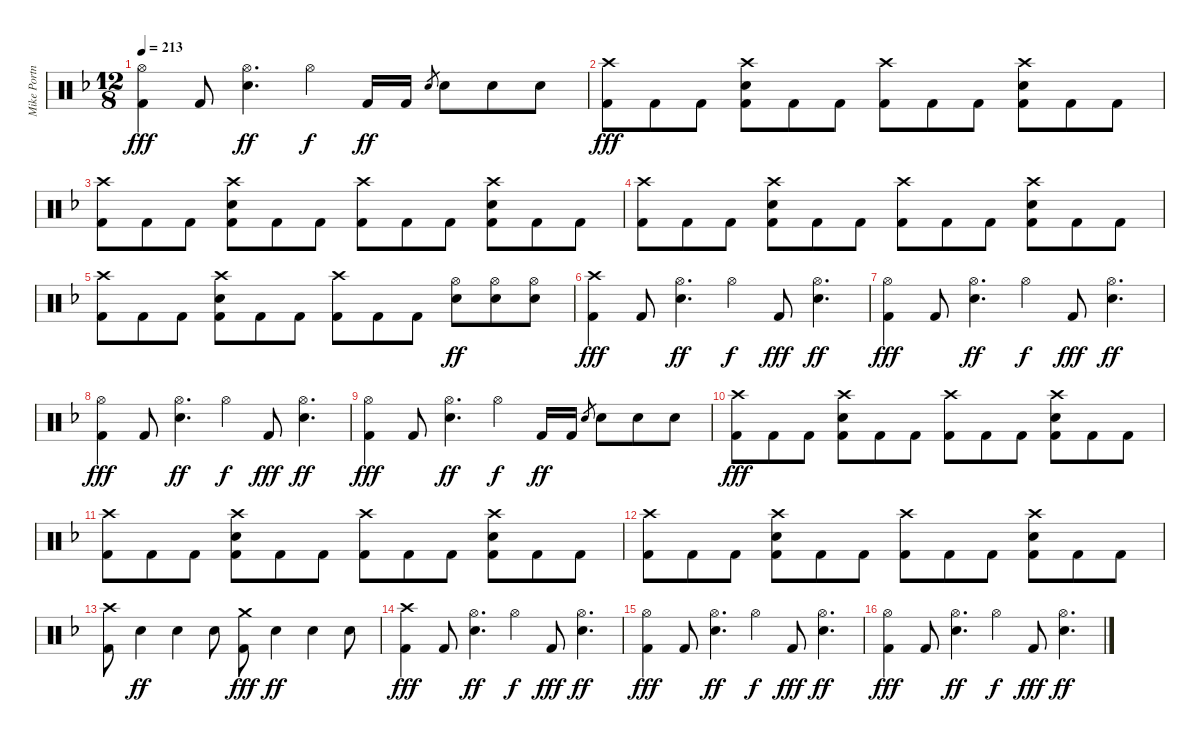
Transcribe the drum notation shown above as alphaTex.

\track ("Mike Portnoy Drums" "Mike Portn") {instrument percussion}
\staff {score}
\articulation defaults
\ts (12 8)
\tempo 213
\clef neutral
\ks dminor
("Hi-Hat (open)" "Kick (hit) 2").4{dy fff} "Kick (hit) 2".8 ("Hi-Hat (open)" "Electric Snare (hit)").4{d dy ff} "Hi-Hat (open)".4{dy f} "Kick (hit) 2".16{dy ff} "Kick (hit) 2".16 "Electric Snare (hit)".8{gr} "Electric Snare (hit)".8 "Electric Snare (hit)".8 "Electric Snare (hit)".8 |
("Crash high (hit)" "Kick (hit) 2").8{dy fff} "Kick (hit) 2".8 "Kick (hit) 2".8 ("Crash high (hit)" "Electric Snare (hit)" "Kick (hit) 2").8 "Kick (hit) 2".8 "Kick (hit) 2".8 ("Crash high (hit)" "Kick (hit) 2").8 "Kick (hit) 2".8 "Kick (hit) 2".8 ("Crash high (hit)" "Electric Snare (hit)" "Kick (hit) 2").8 "Kick (hit) 2".8 "Kick (hit) 2".8 |
("Crash high (hit)" "Kick (hit) 2").8 "Kick (hit) 2".8 "Kick (hit) 2".8 ("Crash high (hit)" "Electric Snare (hit)" "Kick (hit) 2").8 "Kick (hit) 2".8 "Kick (hit) 2".8 ("Crash high (hit)" "Kick (hit) 2").8 "Kick (hit) 2".8 "Kick (hit) 2".8 ("Crash high (hit)" "Electric Snare (hit)" "Kick (hit) 2").8 "Kick (hit) 2".8 "Kick (hit) 2".8 |
("Crash high (hit)" "Kick (hit) 2").8 "Kick (hit) 2".8 "Kick (hit) 2".8 ("Crash high (hit)" "Electric Snare (hit)" "Kick (hit) 2").8 "Kick (hit) 2".8 "Kick (hit) 2".8 ("Crash high (hit)" "Kick (hit) 2").8 "Kick (hit) 2".8 "Kick (hit) 2".8 ("Crash high (hit)" "Electric Snare (hit)" "Kick (hit) 2").8 "Kick (hit) 2".8 "Kick (hit) 2".8 |
("Crash high (hit)" "Kick (hit) 2").8 "Kick (hit) 2".8 "Kick (hit) 2".8 ("Crash high (hit)" "Electric Snare (hit)" "Kick (hit) 2").8 "Kick (hit) 2".8 "Kick (hit) 2".8 ("Crash high (hit)" "Kick (hit) 2").8 "Kick (hit) 2".8 "Kick (hit) 2".8 ("Hi-Hat (open)" "Electric Snare (hit)").8{dy ff} ("Hi-Hat (open)" "Electric Snare (hit)").8 ("Hi-Hat (open)" "Electric Snare (hit)").8 |
("Crash high (hit)" "Kick (hit) 2").4{dy fff} "Kick (hit) 2".8 ("Hi-Hat (open)" "Electric Snare (hit)").4{d dy ff} "Hi-Hat (open)".4{dy f} "Kick (hit) 2".8{dy fff} ("Hi-Hat (open)" "Electric Snare (hit)").4{d dy ff} |
("Hi-Hat (open)" "Kick (hit) 2").4{dy fff} "Kick (hit) 2".8 ("Hi-Hat (open)" "Electric Snare (hit)").4{d dy ff} "Hi-Hat (open)".4{dy f} "Kick (hit) 2".8{dy fff} ("Hi-Hat (open)" "Electric Snare (hit)").4{d dy ff} |
("Hi-Hat (open)" "Kick (hit) 2").4{dy fff} "Kick (hit) 2".8 ("Hi-Hat (open)" "Electric Snare (hit)").4{d dy ff} "Hi-Hat (open)".4{dy f} "Kick (hit) 2".8{dy fff} ("Hi-Hat (open)" "Electric Snare (hit)").4{d dy ff} |
("Hi-Hat (open)" "Kick (hit) 2").4{dy fff} "Kick (hit) 2".8 ("Hi-Hat (open)" "Electric Snare (hit)").4{d dy ff} "Hi-Hat (open)".4{dy f} "Kick (hit) 2".16{dy ff} "Kick (hit) 2".16 "Electric Snare (hit)".8{gr} "Electric Snare (hit)".8 "Electric Snare (hit)".8 "Electric Snare (hit)".8 |
("Crash high (hit)" "Kick (hit) 2").8{dy fff} "Kick (hit) 2".8 "Kick (hit) 2".8 ("Crash high (hit)" "Electric Snare (hit)" "Kick (hit) 2").8 "Kick (hit) 2".8 "Kick (hit) 2".8 ("Crash high (hit)" "Kick (hit) 2").8 "Kick (hit) 2".8 "Kick (hit) 2".8 ("Crash high (hit)" "Electric Snare (hit)" "Kick (hit) 2").8 "Kick (hit) 2".8 "Kick (hit) 2".8 |
("Crash high (hit)" "Kick (hit) 2").8 "Kick (hit) 2".8 "Kick (hit) 2".8 ("Crash high (hit)" "Electric Snare (hit)" "Kick (hit) 2").8 "Kick (hit) 2".8 "Kick (hit) 2".8 ("Crash high (hit)" "Kick (hit) 2").8 "Kick (hit) 2".8 "Kick (hit) 2".8 ("Crash high (hit)" "Electric Snare (hit)" "Kick (hit) 2").8 "Kick (hit) 2".8 "Kick (hit) 2".8 |
("Crash high (hit)" "Kick (hit) 2").8 "Kick (hit) 2".8 "Kick (hit) 2".8 ("Crash high (hit)" "Electric Snare (hit)" "Kick (hit) 2").8 "Kick (hit) 2".8 "Kick (hit) 2".8 ("Crash high (hit)" "Kick (hit) 2").8 "Kick (hit) 2".8 "Kick (hit) 2".8 ("Crash high (hit)" "Electric Snare (hit)" "Kick (hit) 2").8 "Kick (hit) 2".8 "Kick (hit) 2".8 |
("Crash high (hit)" "Kick (hit) 2").8 "Electric Snare (hit)".4{dy ff} "Electric Snare (hit)".4 "Electric Snare (hit)".8 ("Crash medium (hit)" "Kick (hit) 2").8{dy fff} "Electric Snare (hit)".4{dy ff} "Electric Snare (hit)".4 "Electric Snare (hit)".8 |
("Crash high (hit)" "Kick (hit) 2").4{dy fff} "Kick (hit) 2".8 ("Hi-Hat (open)" "Electric Snare (hit)").4{d dy ff} "Hi-Hat (open)".4{dy f} "Kick (hit) 2".8{dy fff} ("Hi-Hat (open)" "Electric Snare (hit)").4{d dy ff} |
("Hi-Hat (open)" "Kick (hit) 2").4{dy fff} "Kick (hit) 2".8 ("Hi-Hat (open)" "Electric Snare (hit)").4{d dy ff} "Hi-Hat (open)".4{dy f} "Kick (hit) 2".8{dy fff} ("Hi-Hat (open)" "Electric Snare (hit)").4{d dy ff} |
("Hi-Hat (open)" "Kick (hit) 2").4{dy fff} "Kick (hit) 2".8 ("Hi-Hat (open)" "Electric Snare (hit)").4{d dy ff} "Hi-Hat (open)".4{dy f} "Kick (hit) 2".8{dy fff} ("Hi-Hat (open)" "Electric Snare (hit)").4{d dy ff}
